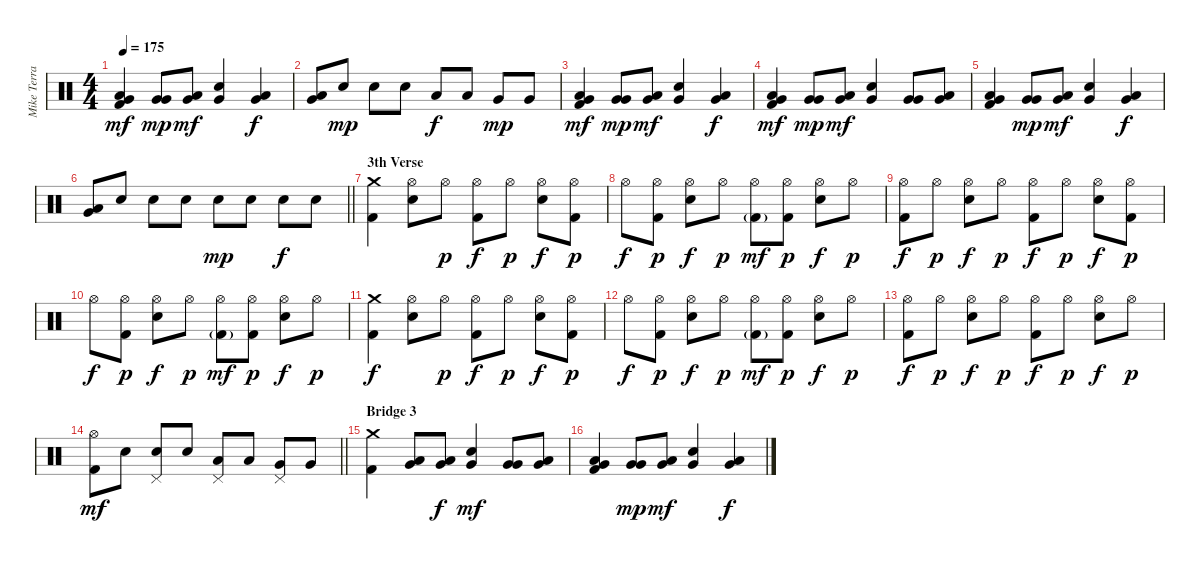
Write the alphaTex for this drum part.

\track ("Mike Terrana" "Mike Terra") {instrument percussion}
\staff {score}
\articulation defaults
\ts (4 4)
\tempo 175
\clef neutral
\ks c
("Low Tom (hit)" "Very Low Tom (hit)" "Kick (hit) 2").4{dy mf} ("Very Low Tom (hit)" "Very Low Tom (hit)").8{dy mp} ("Low Tom (hit)" "Very Low Tom (hit)").8{dy mf} ("Snare (hit) 2" "Very Low Tom (hit)").4 ("Low Tom (hit)" "Very Low Tom (hit)").4{dy f} |
("Low Tom (hit)" "Very Low Tom (hit)").8 "Snare (hit) 2".8{dy mp} "Snare (hit) 2".8 "Snare (hit) 2".8 "Low Tom (hit)".8{dy f} "Low Tom (hit)".8 "Very Low Tom (hit)".8{dy mp} "Very Low Tom (hit)".8 |
("Low Tom (hit)" "Very Low Tom (hit)" "Kick (hit) 2").4{dy mf} ("Very Low Tom (hit)" "Very Low Tom (hit)").8{dy mp} ("Low Tom (hit)" "Very Low Tom (hit)").8{dy mf} ("Snare (hit) 2" "Very Low Tom (hit)").4 ("Low Tom (hit)" "Very Low Tom (hit)").4{dy f} |
("Low Tom (hit)" "Very Low Tom (hit)" "Kick (hit) 2").4{dy mf} ("Very Low Tom (hit)" "Very Low Tom (hit)").8{dy mp} ("Low Tom (hit)" "Very Low Tom (hit)").8{dy mf} ("Snare (hit) 2" "Very Low Tom (hit)").4 ("Very Low Tom (hit)" "Very Low Tom (hit)").8 ("Low Tom (hit)" "Very Low Tom (hit)").8 |
("Low Tom (hit)" "Very Low Tom (hit)" "Kick (hit) 2").4 ("Very Low Tom (hit)" "Very Low Tom (hit)").8{dy mp} ("Low Tom (hit)" "Very Low Tom (hit)").8{dy mf} ("Snare (hit) 2" "Very Low Tom (hit)").4 ("Low Tom (hit)" "Very Low Tom (hit)").4{dy f} |
\barLineRight lightlight
("Low Tom (hit)" "Very Low Tom (hit)").8 "Snare (hit) 2".8 "Snare (hit) 2".8 "Snare (hit) 2".8 "Snare (hit) 2".8{dy mp} "Snare (hit) 2".8 "Snare (hit) 2".8{dy f} "Snare (hit) 2".8 |
\section ("" "3th Verse")
("Crash medium (hit)" "Kick (hit) 2").4 ("Hi-Hat (open)" "Snare (hit) 2").8 "Hi-Hat (open)".8{dy p} ("Hi-Hat (open)" "Kick (hit) 2").8{dy f} "Hi-Hat (open)".8{dy p} ("Hi-Hat (open)" "Snare (hit) 2").8{dy f} ("Hi-Hat (open)" "Kick (hit) 2").8{dy p} |
"Hi-Hat (open)".8{dy f} ("Hi-Hat (open)" "Kick (hit) 2").8{dy p} ("Hi-Hat (open)" "Snare (hit) 2").8{dy f} "Hi-Hat (open)".8{dy p} ("Hi-Hat (open)" "Kick (hit) 2"{g}).8{dy mf} ("Hi-Hat (open)" "Kick (hit) 2").8{dy p} ("Hi-Hat (open)" "Snare (hit) 2").8{dy f} "Hi-Hat (open)".8{dy p} |
("Hi-Hat (open)" "Kick (hit) 2").8{dy f} "Hi-Hat (open)".8{dy p} ("Hi-Hat (open)" "Snare (hit) 2").8{dy f} "Hi-Hat (open)".8{dy p} ("Hi-Hat (open)" "Kick (hit) 2").8{dy f} "Hi-Hat (open)".8{dy p} ("Hi-Hat (open)" "Snare (hit) 2").8{dy f} ("Hi-Hat (open)" "Kick (hit) 2").8{dy p} |
"Hi-Hat (open)".8{dy f} ("Hi-Hat (open)" "Kick (hit) 2").8{dy p} ("Hi-Hat (open)" "Snare (hit) 2").8{dy f} "Hi-Hat (open)".8{dy p} ("Hi-Hat (open)" "Kick (hit) 2"{g}).8{dy mf} ("Hi-Hat (open)" "Kick (hit) 2").8{dy p} ("Hi-Hat (open)" "Snare (hit) 2").8{dy f} "Hi-Hat (open)".8{dy p} |
("Crash medium (hit)" "Kick (hit) 2").4{dy f} ("Hi-Hat (open)" "Snare (hit) 2").8 "Hi-Hat (open)".8{dy p} ("Hi-Hat (open)" "Kick (hit) 2").8{dy f} "Hi-Hat (open)".8{dy p} ("Hi-Hat (open)" "Snare (hit) 2").8{dy f} ("Hi-Hat (open)" "Kick (hit) 2").8{dy p} |
"Hi-Hat (open)".8{dy f} ("Hi-Hat (open)" "Kick (hit) 2").8{dy p} ("Hi-Hat (open)" "Snare (hit) 2").8{dy f} "Hi-Hat (open)".8{dy p} ("Hi-Hat (open)" "Kick (hit) 2"{g}).8{dy mf} ("Hi-Hat (open)" "Kick (hit) 2").8{dy p} ("Hi-Hat (open)" "Snare (hit) 2").8{dy f} "Hi-Hat (open)".8{dy p} |
("Hi-Hat (open)" "Kick (hit) 2").8{dy f} "Hi-Hat (open)".8{dy p} ("Hi-Hat (open)" "Snare (hit) 2").8{dy f} "Hi-Hat (open)".8{dy p} ("Hi-Hat (open)" "Kick (hit) 2").8{dy f} "Hi-Hat (open)".8{dy p} ("Hi-Hat (open)" "Snare (hit) 2").8{dy f} "Hi-Hat (open)".8{dy p} |
\barLineRight lightlight
("Hi-Hat (open)" "Kick (hit) 2").8{dy mf} "Snare (hit) 2".8 ("Pedal Hi-Hat (hit)" "Snare (hit) 2").8 "Snare (hit) 2".8 ("Pedal Hi-Hat (hit)" "Low Tom (hit)").8 "Low Tom (hit)".8 ("Pedal Hi-Hat (hit)" "Very Low Tom (hit)").8 "Very Low Tom (hit)".8 |
\section ("" "Bridge 3")
("Crash medium (hit)" "Kick (hit) 2").4 ("Low Tom (hit)" "Very Low Tom (hit)").8 ("Low Tom (hit)" "Very Low Tom (hit)").8{dy f} ("Snare (hit) 2" "Very Low Tom (hit)").4{dy mf} ("Very Low Tom (hit)" "Very Low Tom (hit)").8 ("Low Tom (hit)" "Very Low Tom (hit)").8 |
("Low Tom (hit)" "Very Low Tom (hit)" "Kick (hit) 2").4 ("Very Low Tom (hit)" "Very Low Tom (hit)").8{dy mp} ("Low Tom (hit)" "Very Low Tom (hit)").8{dy mf} ("Snare (hit) 2" "Very Low Tom (hit)").4 ("Low Tom (hit)" "Very Low Tom (hit)").4{dy f}
